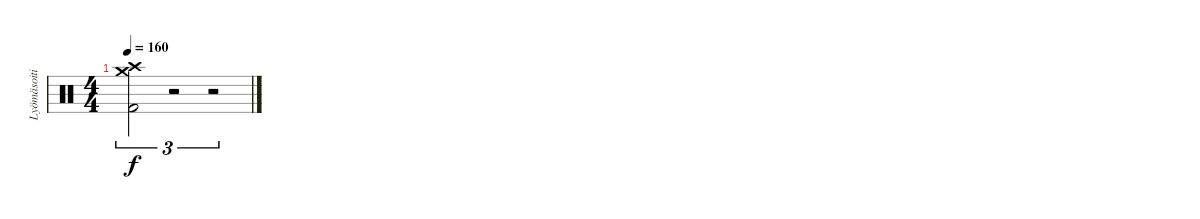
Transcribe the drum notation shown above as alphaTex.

\track ("Lyömäsoitin" "Lyömäsoiti") {instrument percussion}
\staff {score}
\articulation defaults
\ts (4 4)
\tempo 160
\clef neutral
\ks c
("Crash medium (hit)" "Crash high (hit)" "Kick (hit) 2").2{tu (3 2) dy f} r.2{tu (3 2)} r.2{tu (3 2)}
